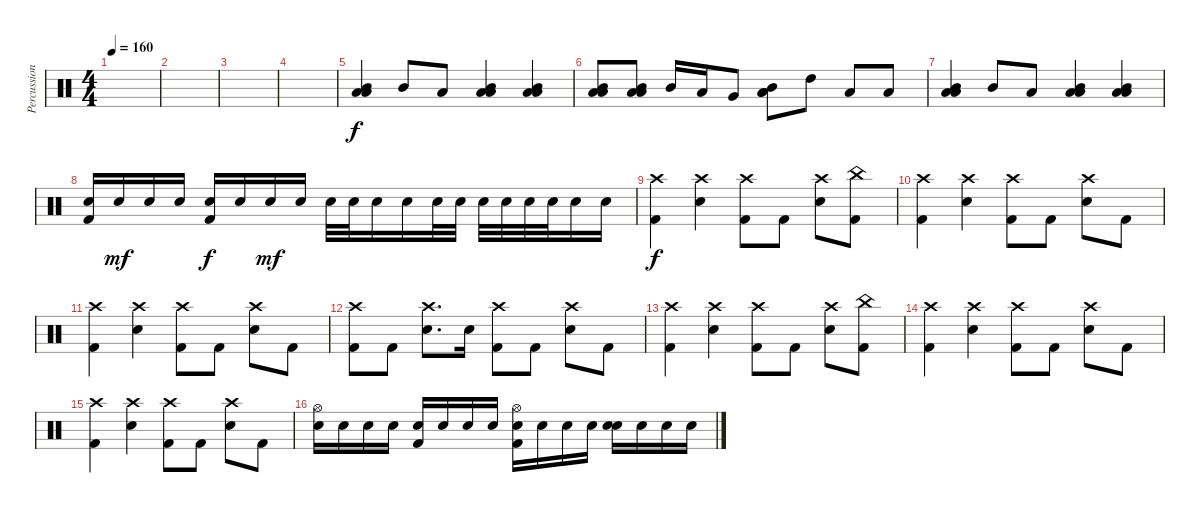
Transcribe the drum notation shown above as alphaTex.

\track ("Percussion" "Percussion") {instrument percussion}
\staff {score}
\articulation defaults
\ts (4 4)
\tempo 160
\clef neutral
\ks c
|
|
|
|
("Mid Tom (hit)" "Low Tom (hit)" "Low Tom (hit)").4 "Mid Tom (hit)".8 "Low Tom (hit)".8 ("Mid Tom (hit)" "Low Tom (hit)" "Low Tom (hit)").4 ("Mid Tom (hit)" "Low Tom (hit)" "Low Tom (hit)").4 |
("Mid Tom (hit)" "Low Tom (hit)" "Low Tom (hit)").8 ("Mid Tom (hit)" "Low Tom (hit)" "Low Tom (hit)").8 "Mid Tom (hit)".16 "Low Tom (hit)".16 "Very Low Tom (hit)".8 ("Mid Tom (hit)" "Low Tom (hit)" "Low Tom (hit)").8 "High Tom (hit)".8 "Low Tom (hit)".8 "Low Tom (hit)".8 |
("Mid Tom (hit)" "Low Tom (hit)" "Low Tom (hit)").4 "Mid Tom (hit)".8 "Low Tom (hit)".8 ("Mid Tom (hit)" "Low Tom (hit)" "Low Tom (hit)").4 ("Mid Tom (hit)" "Low Tom (hit)" "Low Tom (hit)").4 |
("Electric Snare (hit)" "Kick (hit) 2").16 "Electric Snare (hit)".16{dy mf} "Electric Snare (hit)".16 "Electric Snare (hit)".16 ("Electric Snare (hit)" "Kick (hit) 2").16{dy f} "Electric Snare (hit)".16 "Electric Snare (hit)".16{dy mf} "Electric Snare (hit)".16 "Electric Snare (hit)".32 "Electric Snare (hit)".32 "Electric Snare (hit)".16 "Electric Snare (hit)".16 "Electric Snare (hit)".32 "Electric Snare (hit)".32 "Electric Snare (hit)".32 "Electric Snare (hit)".32 "Electric Snare (hit)".32 "Electric Snare (hit)".32 "Electric Snare (hit)".16 "Electric Snare (hit)".16 |
("Crash high (hit)" "Kick (hit) 2").4{dy f} ("Crash high (hit)" "Electric Snare (hit)").4 ("Crash high (hit)" "Kick (hit) 2").8 "Kick (hit) 2".8 ("Crash high (hit)" "Electric Snare (hit)").8 ("China (hit)" "Kick (hit) 2").8 |
("Crash high (hit)" "Kick (hit) 2").4 ("Crash high (hit)" "Electric Snare (hit)").4 ("Crash high (hit)" "Kick (hit) 2").8 "Kick (hit) 2".8 ("Crash high (hit)" "Electric Snare (hit)").8 "Kick (hit) 2".8 |
("Crash high (hit)" "Kick (hit) 2").4 ("Crash high (hit)" "Electric Snare (hit)").4 ("Crash high (hit)" "Kick (hit) 2").8 "Kick (hit) 2".8 ("Crash high (hit)" "Electric Snare (hit)").8 "Kick (hit) 2".8 |
("Crash high (hit)" "Kick (hit) 2").8 "Kick (hit) 2".8 ("Crash high (hit)" "Electric Snare (hit)").8{d} "Electric Snare (hit)".16 ("Crash high (hit)" "Kick (hit) 2").8 "Kick (hit) 2".8 ("Crash high (hit)" "Electric Snare (hit)").8 "Kick (hit) 2".8 |
("Crash high (hit)" "Kick (hit) 2").4 ("Crash high (hit)" "Electric Snare (hit)").4 ("Crash high (hit)" "Kick (hit) 2").8 "Kick (hit) 2".8 ("Crash high (hit)" "Electric Snare (hit)").8 ("China (hit)" "Kick (hit) 2").8 |
("Crash high (hit)" "Kick (hit) 2").4 ("Crash high (hit)" "Electric Snare (hit)").4 ("Crash high (hit)" "Kick (hit) 2").8 "Kick (hit) 2".8 ("Crash high (hit)" "Electric Snare (hit)").8 "Kick (hit) 2".8 |
("Crash high (hit)" "Kick (hit) 2").4 ("Crash high (hit)" "Electric Snare (hit)").4 ("Crash high (hit)" "Kick (hit) 2").8 "Kick (hit) 2".8 ("Crash high (hit)" "Electric Snare (hit)").8 "Kick (hit) 2".8 |
("Hi-Hat (open)" "Electric Snare (hit)").16 "Electric Snare (hit)".16 "Electric Snare (hit)".16 "Electric Snare (hit)".16 ("Electric Snare (hit)" "Kick (hit) 2").16 "Electric Snare (hit)".16 "Electric Snare (hit)".16 "Electric Snare (hit)".16 ("Hi-Hat (open)" "Electric Snare (hit)" "Kick (hit) 2").16 "Electric Snare (hit)".16 "Electric Snare (hit)".16 "Electric Snare (hit)".16 ("Electric Snare (hit)" "Electric Snare (hit)").16 "Electric Snare (hit)".16 "Electric Snare (hit)".16 "Electric Snare (hit)".16
